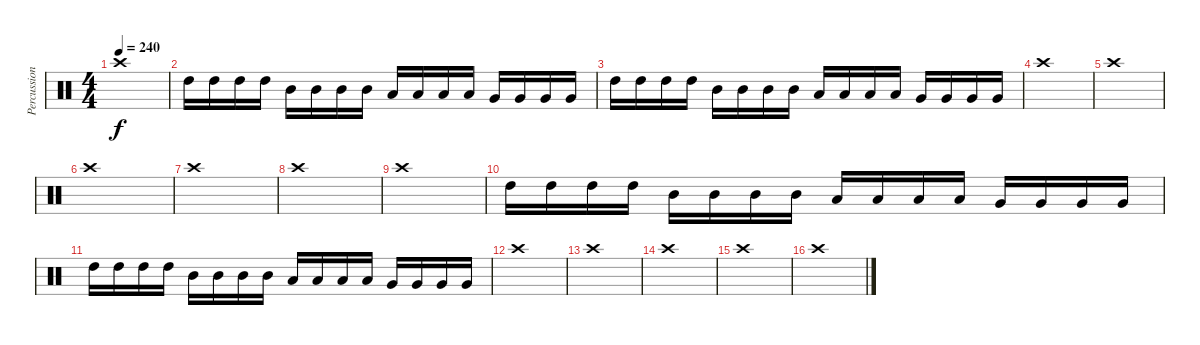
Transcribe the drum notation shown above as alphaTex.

\track ("Percussion" "Percussion") {instrument percussion}
\staff {score}
\articulation defaults
\ts (4 4)
\tempo 240
\clef neutral
\ks c "Crash high (hit)".1{dy f}
|
"High Tom (hit)".16 "High Tom (hit)".16 "High Tom (hit)".16 "High Tom (hit)".16 "Mid Tom (hit)".16 "Mid Tom (hit)".16 "Mid Tom (hit)".16 "Mid Tom (hit)".16 "Low Tom (hit)".16 "Low Tom (hit)".16 "Low Tom (hit)".16 "Low Tom (hit)".16 "Very Low Tom (hit)".16 "Very Low Tom (hit)".16 "Very Low Tom (hit)".16 "Very Low Tom (hit)".16 |
"High Tom (hit)".16 "High Tom (hit)".16 "High Tom (hit)".16 "High Tom (hit)".16 "Mid Tom (hit)".16 "Mid Tom (hit)".16 "Mid Tom (hit)".16 "Mid Tom (hit)".16 "Low Tom (hit)".16 "Low Tom (hit)".16 "Low Tom (hit)".16 "Low Tom (hit)".16 "Very Low Tom (hit)".16 "Very Low Tom (hit)".16 "Very Low Tom (hit)".16 "Very Low Tom (hit)".16 |
"Crash high (hit)".1 |
"Crash high (hit)".1 |
"Crash high (hit)".1 |
"Crash high (hit)".1 |
"Crash high (hit)".1 |
"Crash high (hit)".1 |
"High Tom (hit)".16 "High Tom (hit)".16 "High Tom (hit)".16 "High Tom (hit)".16 "Mid Tom (hit)".16 "Mid Tom (hit)".16 "Mid Tom (hit)".16 "Mid Tom (hit)".16 "Low Tom (hit)".16 "Low Tom (hit)".16 "Low Tom (hit)".16 "Low Tom (hit)".16 "Very Low Tom (hit)".16 "Very Low Tom (hit)".16 "Very Low Tom (hit)".16 "Very Low Tom (hit)".16 |
"High Tom (hit)".16 "High Tom (hit)".16 "High Tom (hit)".16 "High Tom (hit)".16 "Mid Tom (hit)".16 "Mid Tom (hit)".16 "Mid Tom (hit)".16 "Mid Tom (hit)".16 "Low Tom (hit)".16 "Low Tom (hit)".16 "Low Tom (hit)".16 "Low Tom (hit)".16 "Very Low Tom (hit)".16 "Very Low Tom (hit)".16 "Very Low Tom (hit)".16 "Very Low Tom (hit)".16 |
"Crash high (hit)".1 |
"Crash high (hit)".1 |
"Crash high (hit)".1 |
"Crash high (hit)".1 |
"Crash high (hit)".1
